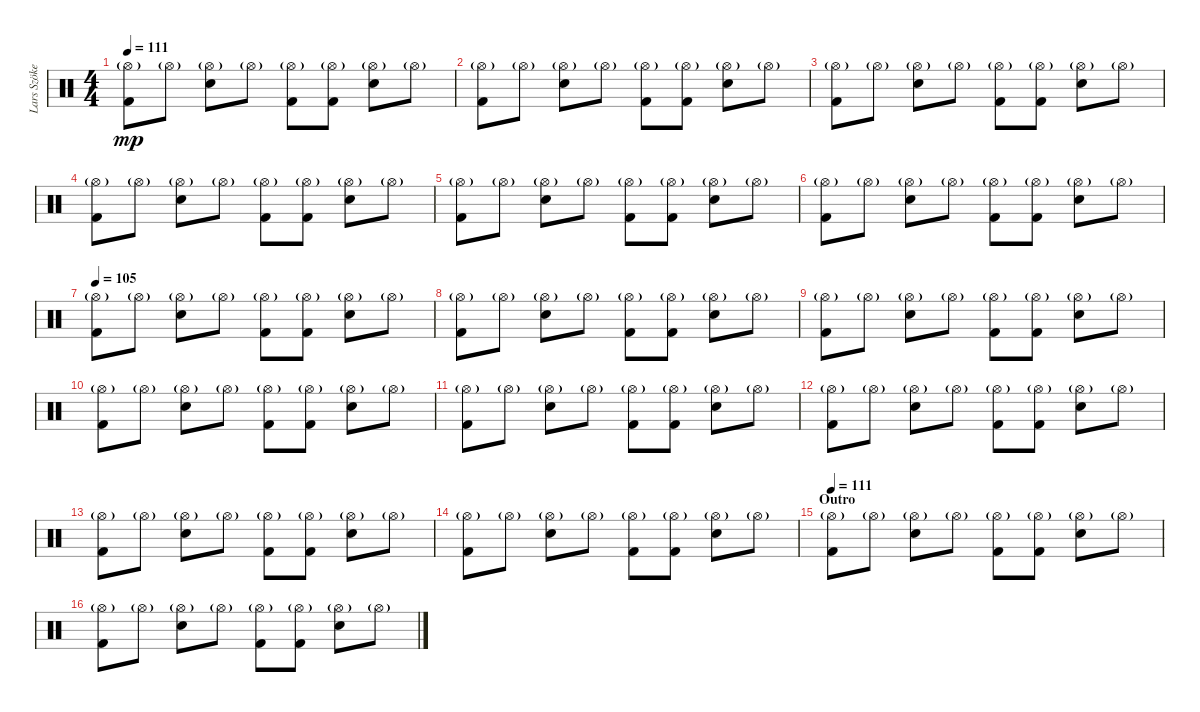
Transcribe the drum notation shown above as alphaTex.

\track ("Lars Szöke/Horgh" "Lars Szöke") {instrument percussion}
\staff {score}
\articulation defaults
\ts (4 4)
\tempo 111
\clef neutral
\ks c
("Hi-Hat (open)"{g} "Kick (hit) 2").8{dy mp} "Hi-Hat (open)"{g}.8 ("Hi-Hat (open)"{g} "Snare (hit) 2").8 "Hi-Hat (open)"{g}.8 ("Hi-Hat (open)"{g} "Kick (hit) 2").8 ("Hi-Hat (open)"{g} "Kick (hit) 2").8 ("Hi-Hat (open)"{g} "Snare (hit) 2").8 "Hi-Hat (open)"{g}.8 |
("Hi-Hat (open)"{g} "Kick (hit) 2").8 "Hi-Hat (open)"{g}.8 ("Hi-Hat (open)"{g} "Snare (hit) 2").8 "Hi-Hat (open)"{g}.8 ("Hi-Hat (open)"{g} "Kick (hit) 2").8 ("Hi-Hat (open)"{g} "Kick (hit) 2").8 ("Hi-Hat (open)"{g} "Snare (hit) 2").8 "Hi-Hat (open)"{g}.8 |
("Hi-Hat (open)"{g} "Kick (hit) 2").8 "Hi-Hat (open)"{g}.8 ("Hi-Hat (open)"{g} "Snare (hit) 2").8 "Hi-Hat (open)"{g}.8 ("Hi-Hat (open)"{g} "Kick (hit) 2").8 ("Hi-Hat (open)"{g} "Kick (hit) 2").8 ("Hi-Hat (open)"{g} "Snare (hit) 2").8 "Hi-Hat (open)"{g}.8 |
("Hi-Hat (open)"{g} "Kick (hit) 2").8 "Hi-Hat (open)"{g}.8 ("Hi-Hat (open)"{g} "Snare (hit) 2").8 "Hi-Hat (open)"{g}.8 ("Hi-Hat (open)"{g} "Kick (hit) 2").8 ("Hi-Hat (open)"{g} "Kick (hit) 2").8 ("Hi-Hat (open)"{g} "Snare (hit) 2").8 "Hi-Hat (open)"{g}.8 |
("Hi-Hat (open)"{g} "Kick (hit) 2").8 "Hi-Hat (open)"{g}.8 ("Hi-Hat (open)"{g} "Snare (hit) 2").8 "Hi-Hat (open)"{g}.8 ("Hi-Hat (open)"{g} "Kick (hit) 2").8 ("Hi-Hat (open)"{g} "Kick (hit) 2").8 ("Hi-Hat (open)"{g} "Snare (hit) 2").8 "Hi-Hat (open)"{g}.8 |
("Hi-Hat (open)"{g} "Kick (hit) 2").8 "Hi-Hat (open)"{g}.8 ("Hi-Hat (open)"{g} "Snare (hit) 2").8 "Hi-Hat (open)"{g}.8 ("Hi-Hat (open)"{g} "Kick (hit) 2").8 ("Hi-Hat (open)"{g} "Kick (hit) 2").8 ("Hi-Hat (open)"{g} "Snare (hit) 2").8 "Hi-Hat (open)"{g}.8 |
\tempo 105
("Hi-Hat (open)"{g} "Kick (hit) 2").8 "Hi-Hat (open)"{g}.8 ("Hi-Hat (open)"{g} "Snare (hit) 2").8 "Hi-Hat (open)"{g}.8 ("Hi-Hat (open)"{g} "Kick (hit) 2").8 ("Hi-Hat (open)"{g} "Kick (hit) 2").8 ("Hi-Hat (open)"{g} "Snare (hit) 2").8 "Hi-Hat (open)"{g}.8 |
("Hi-Hat (open)"{g} "Kick (hit) 2").8 "Hi-Hat (open)"{g}.8 ("Hi-Hat (open)"{g} "Snare (hit) 2").8 "Hi-Hat (open)"{g}.8 ("Hi-Hat (open)"{g} "Kick (hit) 2").8 ("Hi-Hat (open)"{g} "Kick (hit) 2").8 ("Hi-Hat (open)"{g} "Snare (hit) 2").8 "Hi-Hat (open)"{g}.8 |
("Hi-Hat (open)"{g} "Kick (hit) 2").8 "Hi-Hat (open)"{g}.8 ("Hi-Hat (open)"{g} "Snare (hit) 2").8 "Hi-Hat (open)"{g}.8 ("Hi-Hat (open)"{g} "Kick (hit) 2").8 ("Hi-Hat (open)"{g} "Kick (hit) 2").8 ("Hi-Hat (open)"{g} "Snare (hit) 2").8 "Hi-Hat (open)"{g}.8 |
("Hi-Hat (open)"{g} "Kick (hit) 2").8 "Hi-Hat (open)"{g}.8 ("Hi-Hat (open)"{g} "Snare (hit) 2").8 "Hi-Hat (open)"{g}.8 ("Hi-Hat (open)"{g} "Kick (hit) 2").8 ("Hi-Hat (open)"{g} "Kick (hit) 2").8 ("Hi-Hat (open)"{g} "Snare (hit) 2").8 "Hi-Hat (open)"{g}.8 |
("Hi-Hat (open)"{g} "Kick (hit) 2").8 "Hi-Hat (open)"{g}.8 ("Hi-Hat (open)"{g} "Snare (hit) 2").8 "Hi-Hat (open)"{g}.8 ("Hi-Hat (open)"{g} "Kick (hit) 2").8 ("Hi-Hat (open)"{g} "Kick (hit) 2").8 ("Hi-Hat (open)"{g} "Snare (hit) 2").8 "Hi-Hat (open)"{g}.8 |
("Hi-Hat (open)"{g} "Kick (hit) 2").8 "Hi-Hat (open)"{g}.8 ("Hi-Hat (open)"{g} "Snare (hit) 2").8 "Hi-Hat (open)"{g}.8 ("Hi-Hat (open)"{g} "Kick (hit) 2").8 ("Hi-Hat (open)"{g} "Kick (hit) 2").8 ("Hi-Hat (open)"{g} "Snare (hit) 2").8 "Hi-Hat (open)"{g}.8 |
("Hi-Hat (open)"{g} "Kick (hit) 2").8 "Hi-Hat (open)"{g}.8 ("Hi-Hat (open)"{g} "Snare (hit) 2").8 "Hi-Hat (open)"{g}.8 ("Hi-Hat (open)"{g} "Kick (hit) 2").8 ("Hi-Hat (open)"{g} "Kick (hit) 2").8 ("Hi-Hat (open)"{g} "Snare (hit) 2").8 "Hi-Hat (open)"{g}.8 |
("Hi-Hat (open)"{g} "Kick (hit) 2").8 "Hi-Hat (open)"{g}.8 ("Hi-Hat (open)"{g} "Snare (hit) 2").8 "Hi-Hat (open)"{g}.8 ("Hi-Hat (open)"{g} "Kick (hit) 2").8 ("Hi-Hat (open)"{g} "Kick (hit) 2").8 ("Hi-Hat (open)"{g} "Snare (hit) 2").8 "Hi-Hat (open)"{g}.8 |
\section ("" "Outro")
\tempo 111
("Hi-Hat (open)"{g} "Kick (hit) 2").8 "Hi-Hat (open)"{g}.8 ("Hi-Hat (open)"{g} "Snare (hit) 2").8 "Hi-Hat (open)"{g}.8 ("Hi-Hat (open)"{g} "Kick (hit) 2").8 ("Hi-Hat (open)"{g} "Kick (hit) 2").8 ("Hi-Hat (open)"{g} "Snare (hit) 2").8 "Hi-Hat (open)"{g}.8 |
("Hi-Hat (open)"{g} "Kick (hit) 2").8 "Hi-Hat (open)"{g}.8 ("Hi-Hat (open)"{g} "Snare (hit) 2").8 "Hi-Hat (open)"{g}.8 ("Hi-Hat (open)"{g} "Kick (hit) 2").8 ("Hi-Hat (open)"{g} "Kick (hit) 2").8 ("Hi-Hat (open)"{g} "Snare (hit) 2").8 "Hi-Hat (open)"{g}.8
